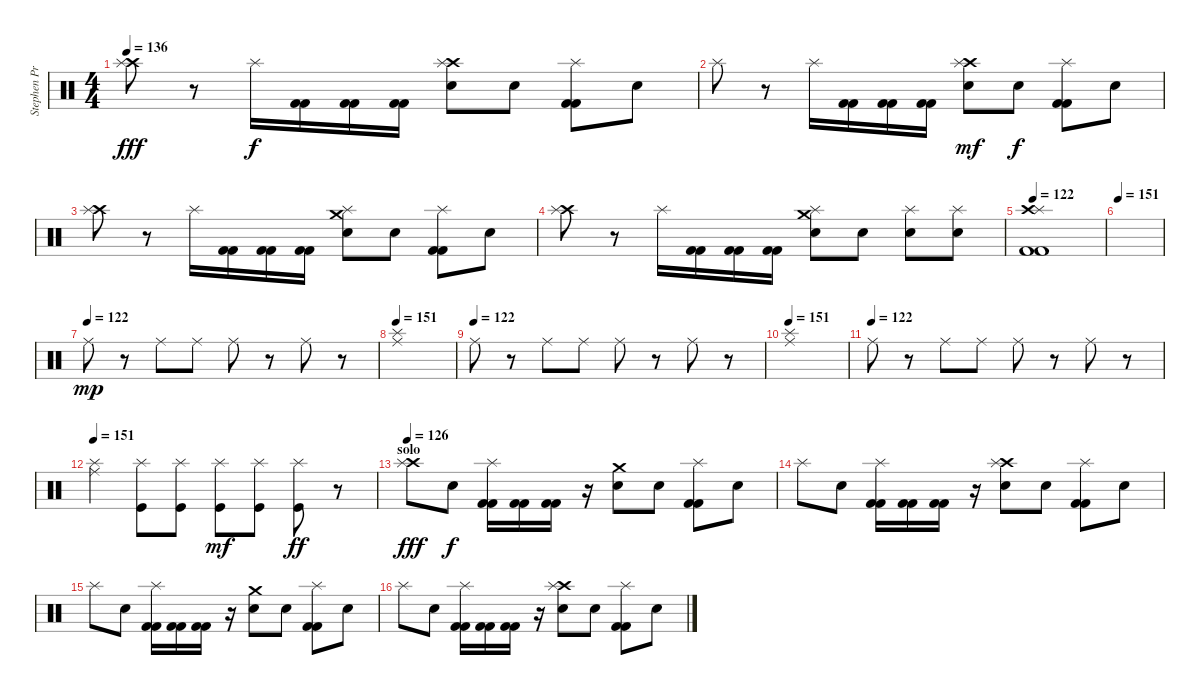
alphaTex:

\track ("Stephen Priestly  (Drums)" "Stephen Pr") {instrument percussion}
\staff {score}
\articulation defaults
\ts (4 4)
\tempo 136
\clef neutral
\ks c
("Crash high (hit)" "Splash (hit)").8{dy fff} r.8 "Splash (hit)".16{dy f} ("Kick (hit) 2" "Kick (hit) 2").16 ("Kick (hit) 2" "Kick (hit) 2").16 ("Kick (hit) 2" "Kick (hit) 2").16 ("Crash high (hit)" "Splash (hit)" "Electric Snare (hit)").8 "Snare (hit)".8 ("Splash (hit)" "Kick (hit) 2" "Kick (hit) 2").8 "Snare (hit)".8 |
"Splash (hit)".8 r.8 "Splash (hit)".16 ("Kick (hit) 2" "Kick (hit) 2").16 ("Kick (hit) 2" "Kick (hit) 2").16 ("Kick (hit) 2" "Kick (hit) 2").16 ("Crash high (hit)" "Splash (hit)" "Electric Snare (hit)").8{dy mf} "Snare (hit)".8{dy f} ("Splash (hit)" "Kick (hit) 2" "Kick (hit) 2").8 "Snare (hit)".8 |
("Crash high (hit)" "Splash (hit)").8 r.8 "Splash (hit)".16 ("Kick (hit) 2" "Kick (hit) 2").16 ("Kick (hit) 2" "Kick (hit) 2").16 ("Kick (hit) 2" "Kick (hit) 2").16 ("Crash medium (hit)" "Splash (hit)" "Electric Snare (hit)").8 "Snare (hit)".8 ("Splash (hit)" "Kick (hit) 2" "Kick (hit) 2").8 "Snare (hit)".8 |
("Crash high (hit)" "Splash (hit)").8 r.8 "Splash (hit)".16 ("Kick (hit) 2" "Kick (hit) 2").16 ("Kick (hit) 2" "Kick (hit) 2").16 ("Kick (hit) 2" "Kick (hit) 2").16 ("Crash medium (hit)" "Splash (hit)" "Electric Snare (hit)").8 "Snare (hit)".8 ("Splash (hit)" "Electric Snare (hit)").8 ("Splash (hit)" "Electric Snare (hit)").8 |
\tempo 122
("Splash (hit)" "Crash high (hit)" "Kick (hit) 2" "Kick (hit) 2").1 |
\tempo 151
|
\tempo (122)
"Ride (middle)".8{dy mp} r.8 "Ride (middle)".8 "Ride (middle)".8 "Ride (middle)".8 r.8 "Ride (middle)".8 r.8 |
\tempo 151
("Ride (middle)" "Splash (hit)").1 |
\tempo (122)
"Ride (middle)".8 r.8 "Ride (middle)".8 "Ride (middle)".8 "Ride (middle)".8 r.8 "Ride (middle)".8 r.8 |
\tempo 151
("Ride (middle)" "Splash (hit)").1 |
\tempo (122)
"Ride (middle)".8 r.8 "Ride (middle)".8 "Ride (middle)".8 "Ride (middle)".8 r.8 "Ride (middle)".8 r.8 |
\tempo 151
("Ride (middle)" "Splash (hit)").4 ("Splash (hit)" "Kick (hit)").8 ("Splash (hit)" "Kick (hit)").8 ("Splash (hit)" "Kick (hit)").8{dy mf} ("Splash (hit)" "Kick (hit)").8 ("Splash (hit)" "Kick (hit)").8{dy ff} r.8 |
\section ("" "solo")
\tempo 126
("Crash high (hit)" "Splash (hit)").8{dy fff} "Snare (hit)".8{dy f} ("Splash (hit)" "Kick (hit) 2" "Kick (hit) 2").16 ("Kick (hit) 2" "Kick (hit) 2").16 ("Kick (hit) 2" "Kick (hit) 2").16 r.16 ("Crash medium (hit)" "Electric Snare (hit)").8 "Snare (hit)".8 ("Splash (hit)" "Kick (hit) 2" "Kick (hit) 2").8 "Snare (hit)".8 |
"Splash (hit)".8 "Snare (hit)".8 ("Splash (hit)" "Kick (hit) 2" "Kick (hit) 2").16 ("Kick (hit) 2" "Kick (hit) 2").16 ("Kick (hit) 2" "Kick (hit) 2").16 r.16 ("Crash high (hit)" "Splash (hit)" "Electric Snare (hit)").8 "Snare (hit)".8 ("Splash (hit)" "Kick (hit) 2" "Kick (hit) 2").8 "Snare (hit)".8 |
"Splash (hit)".8 "Snare (hit)".8 ("Splash (hit)" "Kick (hit) 2" "Kick (hit) 2").16 ("Kick (hit) 2" "Kick (hit) 2").16 ("Kick (hit) 2" "Kick (hit) 2").16 r.16 ("Crash medium (hit)" "Electric Snare (hit)").8 "Snare (hit)".8 ("Splash (hit)" "Kick (hit) 2" "Kick (hit) 2").8 "Snare (hit)".8 |
"Splash (hit)".8 "Snare (hit)".8 ("Splash (hit)" "Kick (hit) 2" "Kick (hit) 2").16 ("Kick (hit) 2" "Kick (hit) 2").16 ("Kick (hit) 2" "Kick (hit) 2").16 r.16 ("Crash high (hit)" "Splash (hit)" "Electric Snare (hit)").8 "Snare (hit)".8 ("Splash (hit)" "Kick (hit) 2" "Kick (hit) 2").8 "Snare (hit)".8
